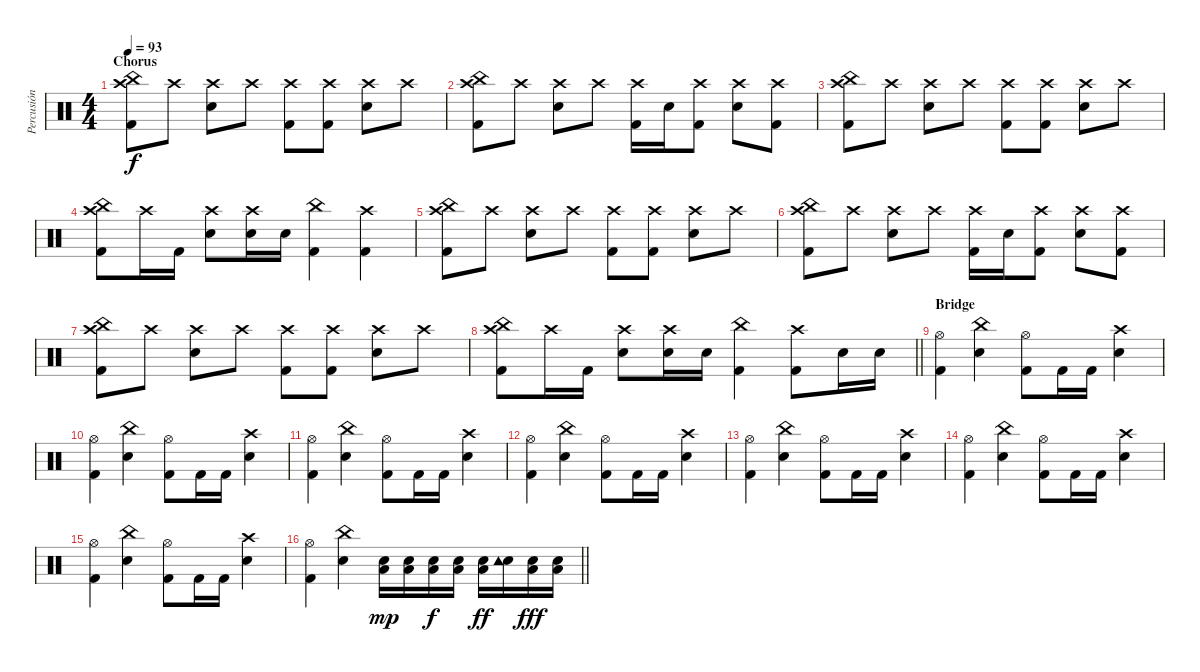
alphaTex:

\track ("Percusión" "Percusión") {instrument percussion}
\staff {score}
\articulation defaults
\ts (4 4)
\section ("" "Chorus")
\tempo 93
\clef neutral
\ks c
("China (hit)" "Kick (hit) 2" "Crash high (hit)").8{dy f} "Crash high (hit)".8 ("Snare (hit) 2" "Crash high (hit)").8 "Crash high (hit)".8 ("Kick (hit) 2" "Crash high (hit)").8 ("Kick (hit) 2" "Crash high (hit)").8 ("Snare (hit) 2" "Crash high (hit)").8 "Crash high (hit)".8 |
("China (hit)" "Kick (hit) 2" "Crash high (hit)").8 "Crash high (hit)".8 ("Snare (hit) 2" "Crash high (hit)").8 "Crash high (hit)".8 ("Kick (hit) 2" "Crash high (hit)").16 "Snare (hit) 2".16 ("Kick (hit) 2" "Crash high (hit)").8 ("Snare (hit) 2" "Crash high (hit)").8 ("Kick (hit) 2" "Crash high (hit)").8 |
("China (hit)" "Kick (hit) 2" "Crash high (hit)").8 "Crash high (hit)".8 ("Snare (hit) 2" "Crash high (hit)").8 "Crash high (hit)".8 ("Kick (hit) 2" "Crash high (hit)").8 ("Kick (hit) 2" "Crash high (hit)").8 ("Snare (hit) 2" "Crash high (hit)").8 "Crash high (hit)".8 |
("China (hit)" "Kick (hit) 2" "Crash high (hit)").8 "Crash high (hit)".16 "Kick (hit) 2".16 ("Snare (hit) 2" "Crash high (hit)").8 ("Snare (hit) 2" "Crash high (hit)").16 "Snare (hit) 2".16 ("China (hit)" "Kick (hit) 2").4 ("Kick (hit) 2" "Crash high (hit)").4 |
("China (hit)" "Kick (hit) 2" "Crash high (hit)").8 "Crash high (hit)".8 ("Snare (hit) 2" "Crash high (hit)").8 "Crash high (hit)".8 ("Kick (hit) 2" "Crash high (hit)").8 ("Kick (hit) 2" "Crash high (hit)").8 ("Snare (hit) 2" "Crash high (hit)").8 "Crash high (hit)".8 |
("China (hit)" "Kick (hit) 2" "Crash high (hit)").8 "Crash high (hit)".8 ("Snare (hit) 2" "Crash high (hit)").8 "Crash high (hit)".8 ("Kick (hit) 2" "Crash high (hit)").16 "Snare (hit) 2".16 ("Kick (hit) 2" "Crash high (hit)").8 ("Snare (hit) 2" "Crash high (hit)").8 ("Kick (hit) 2" "Crash high (hit)").8 |
("China (hit)" "Kick (hit) 2" "Crash high (hit)").8 "Crash high (hit)".8 ("Snare (hit) 2" "Crash high (hit)").8 "Crash high (hit)".8 ("Kick (hit) 2" "Crash high (hit)").8 ("Kick (hit) 2" "Crash high (hit)").8 ("Snare (hit) 2" "Crash high (hit)").8 "Crash high (hit)".8 |
\barLineRight lightlight
("China (hit)" "Kick (hit) 2" "Crash high (hit)").8 "Crash high (hit)".16 "Kick (hit) 2".16 ("Snare (hit) 2" "Crash high (hit)").8 ("Snare (hit) 2" "Crash high (hit)").16 "Snare (hit) 2".16 ("China (hit)" "Kick (hit) 2").4 ("Kick (hit) 2" "Crash high (hit)").8 "Snare (hit) 2".16 "Snare (hit) 2".16 |
\section ("" "Bridge")
("Hi-Hat (open)" "Kick (hit) 2").4 ("China (hit)" "Snare (hit) 2").4 ("Hi-Hat (open)" "Kick (hit) 2").8 "Kick (hit) 2".16 "Kick (hit) 2".16 ("Crash high (hit)" "Snare (hit) 2").4 |
("Hi-Hat (open)" "Kick (hit) 2").4 ("China (hit)" "Snare (hit) 2").4 ("Hi-Hat (open)" "Kick (hit) 2").8 "Kick (hit) 2".16 "Kick (hit) 2".16 ("Crash high (hit)" "Snare (hit) 2").4 |
("Hi-Hat (open)" "Kick (hit) 2").4 ("China (hit)" "Snare (hit) 2").4 ("Hi-Hat (open)" "Kick (hit) 2").8 "Kick (hit) 2".16 "Kick (hit) 2".16 ("Crash high (hit)" "Snare (hit) 2").4 |
("Hi-Hat (open)" "Kick (hit) 2").4 ("China (hit)" "Snare (hit) 2").4 ("Hi-Hat (open)" "Kick (hit) 2").8 "Kick (hit) 2".16 "Kick (hit) 2".16 ("Crash high (hit)" "Snare (hit) 2").4 |
("Hi-Hat (open)" "Kick (hit) 2").4 ("China (hit)" "Snare (hit) 2").4 ("Hi-Hat (open)" "Kick (hit) 2").8 "Kick (hit) 2".16 "Kick (hit) 2".16 ("Crash high (hit)" "Snare (hit) 2").4 |
("Hi-Hat (open)" "Kick (hit) 2").4 ("China (hit)" "Snare (hit) 2").4 ("Hi-Hat (open)" "Kick (hit) 2").8 "Kick (hit) 2".16 "Kick (hit) 2".16 ("Crash high (hit)" "Snare (hit) 2").4 |
("Hi-Hat (open)" "Kick (hit) 2").4 ("China (hit)" "Snare (hit) 2").4 ("Hi-Hat (open)" "Kick (hit) 2").8 "Kick (hit) 2".16 "Kick (hit) 2".16 ("Crash high (hit)" "Snare (hit) 2").4 |
\barLineRight lightlight
("Hi-Hat (open)" "Kick (hit) 2").4 ("China (hit)" "Snare (hit) 2").4 ("Snare (hit) 2" "Low Tom (hit)").16{dy mp} ("Snare (hit) 2" "Low Tom (hit)").16 ("Snare (hit) 2" "Low Tom (hit)").16{dy f} ("Snare (hit) 2" "Low Tom (hit)").16 ("Snare (hit) 2" "Low Tom (hit)").16{dy ff} ("Snare (hit) 2" "Tambourine (hit)").16 ("Snare (hit) 2" "Low Tom (hit)").16{dy fff} ("Snare (hit) 2" "Low Tom (hit)").16
